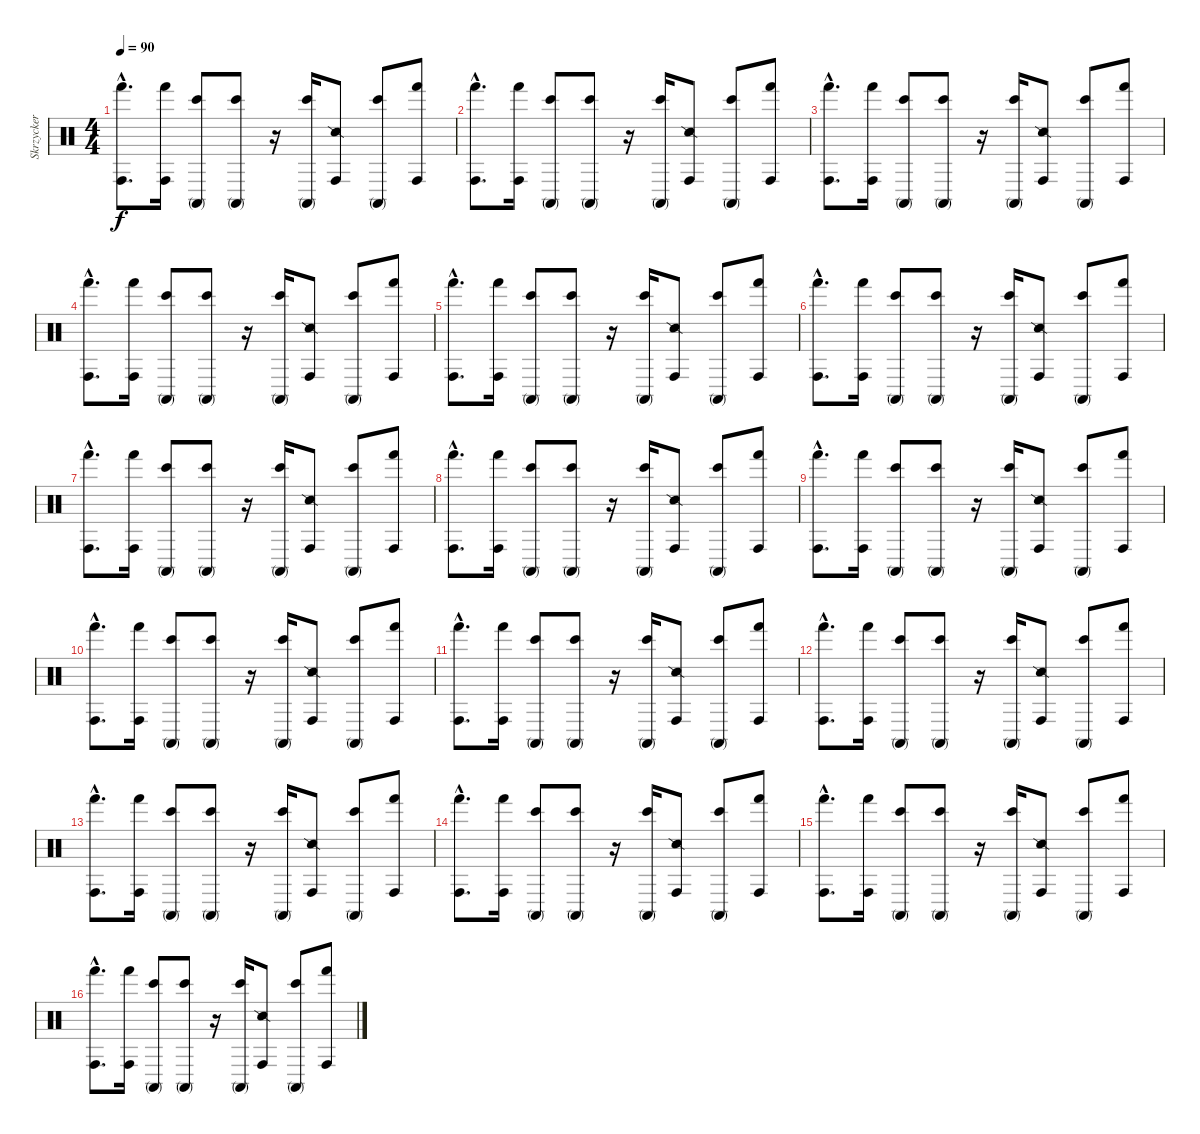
\track ("Skrzycker" "Skrzycker") {instrument percussion}
\staff {score}
\articulation defaults
\ts (4 4)
\tempo 90
\clef neutral
\ks c
("Conga high (hit)"{hac} "Hand (hit)"{hac}).8{d dy f} ("Conga high (hit)" "Hand (hit)").16 ("Conga high (mute)" "Bongo High (hit)").8 ("Conga high (mute)" "Bongo High (hit)").8 r.16 ("Conga high (mute)" "Bongo High (hit)").16 ("Conga high (hit)" "Snare (side stick) 2").8 ("Conga high (mute)" "Bongo High (hit)").8 ("Conga high (hit)" "Hand (hit)").8 |
("Conga high (hit)"{hac} "Hand (hit)"{hac}).8{d} ("Conga high (hit)" "Hand (hit)").16 ("Conga high (mute)" "Bongo High (hit)").8 ("Conga high (mute)" "Bongo High (hit)").8 r.16 ("Conga high (mute)" "Bongo High (hit)").16 ("Conga high (hit)" "Snare (side stick) 2").8 ("Conga high (mute)" "Bongo High (hit)").8 ("Conga high (hit)" "Hand (hit)").8 |
("Conga high (hit)"{hac} "Hand (hit)"{hac}).8{d} ("Conga high (hit)" "Hand (hit)").16 ("Conga high (mute)" "Bongo High (hit)").8 ("Conga high (mute)" "Bongo High (hit)").8 r.16 ("Conga high (mute)" "Bongo High (hit)").16 ("Conga high (hit)" "Snare (side stick) 2").8 ("Conga high (mute)" "Bongo High (hit)").8 ("Conga high (hit)" "Hand (hit)").8 |
("Conga high (hit)"{hac} "Hand (hit)"{hac}).8{d} ("Conga high (hit)" "Hand (hit)").16 ("Conga high (mute)" "Bongo High (hit)").8 ("Conga high (mute)" "Bongo High (hit)").8 r.16 ("Conga high (mute)" "Bongo High (hit)").16 ("Conga high (hit)" "Snare (side stick) 2").8 ("Conga high (mute)" "Bongo High (hit)").8 ("Conga high (hit)" "Hand (hit)").8 |
("Conga high (hit)"{hac} "Hand (hit)"{hac}).8{d} ("Conga high (hit)" "Hand (hit)").16 ("Conga high (mute)" "Bongo High (hit)").8 ("Conga high (mute)" "Bongo High (hit)").8 r.16 ("Conga high (mute)" "Bongo High (hit)").16 ("Conga high (hit)" "Snare (side stick) 2").8 ("Conga high (mute)" "Bongo High (hit)").8 ("Conga high (hit)" "Hand (hit)").8 |
("Conga high (hit)"{hac} "Hand (hit)"{hac}).8{d} ("Conga high (hit)" "Hand (hit)").16 ("Conga high (mute)" "Bongo High (hit)").8 ("Conga high (mute)" "Bongo High (hit)").8 r.16 ("Conga high (mute)" "Bongo High (hit)").16 ("Conga high (hit)" "Snare (side stick) 2").8 ("Conga high (mute)" "Bongo High (hit)").8 ("Conga high (hit)" "Hand (hit)").8 |
("Conga high (hit)"{hac} "Hand (hit)"{hac}).8{d} ("Conga high (hit)" "Hand (hit)").16 ("Conga high (mute)" "Bongo High (hit)").8 ("Conga high (mute)" "Bongo High (hit)").8 r.16 ("Conga high (mute)" "Bongo High (hit)").16 ("Conga high (hit)" "Snare (side stick) 2").8 ("Conga high (mute)" "Bongo High (hit)").8 ("Conga high (hit)" "Hand (hit)").8 |
("Conga high (hit)"{hac} "Hand (hit)"{hac}).8{d} ("Conga high (hit)" "Hand (hit)").16 ("Conga high (mute)" "Bongo High (hit)").8 ("Conga high (mute)" "Bongo High (hit)").8 r.16 ("Conga high (mute)" "Bongo High (hit)").16 ("Conga high (hit)" "Snare (side stick) 2").8 ("Conga high (mute)" "Bongo High (hit)").8 ("Conga high (hit)" "Hand (hit)").8 |
("Conga high (hit)"{hac} "Hand (hit)"{hac}).8{d} ("Conga high (hit)" "Hand (hit)").16 ("Conga high (mute)" "Bongo High (hit)").8 ("Conga high (mute)" "Bongo High (hit)").8 r.16 ("Conga high (mute)" "Bongo High (hit)").16 ("Conga high (hit)" "Snare (side stick) 2").8 ("Conga high (mute)" "Bongo High (hit)").8 ("Conga high (hit)" "Hand (hit)").8 |
("Conga high (hit)"{hac} "Hand (hit)"{hac}).8{d} ("Conga high (hit)" "Hand (hit)").16 ("Conga high (mute)" "Bongo High (hit)").8 ("Conga high (mute)" "Bongo High (hit)").8 r.16 ("Conga high (mute)" "Bongo High (hit)").16 ("Conga high (hit)" "Snare (side stick) 2").8 ("Conga high (mute)" "Bongo High (hit)").8 ("Conga high (hit)" "Hand (hit)").8 |
("Conga high (hit)"{hac} "Hand (hit)"{hac}).8{d} ("Conga high (hit)" "Hand (hit)").16 ("Conga high (mute)" "Bongo High (hit)").8 ("Conga high (mute)" "Bongo High (hit)").8 r.16 ("Conga high (mute)" "Bongo High (hit)").16 ("Conga high (hit)" "Snare (side stick) 2").8 ("Conga high (mute)" "Bongo High (hit)").8 ("Conga high (hit)" "Hand (hit)").8 |
("Conga high (hit)"{hac} "Hand (hit)"{hac}).8{d} ("Conga high (hit)" "Hand (hit)").16 ("Conga high (mute)" "Bongo High (hit)").8 ("Conga high (mute)" "Bongo High (hit)").8 r.16 ("Conga high (mute)" "Bongo High (hit)").16 ("Conga high (hit)" "Snare (side stick) 2").8 ("Conga high (mute)" "Bongo High (hit)").8 ("Conga high (hit)" "Hand (hit)").8 |
("Conga high (hit)"{hac} "Hand (hit)"{hac}).8{d} ("Conga high (hit)" "Hand (hit)").16 ("Conga high (mute)" "Bongo High (hit)").8 ("Conga high (mute)" "Bongo High (hit)").8 r.16 ("Conga high (mute)" "Bongo High (hit)").16 ("Conga high (hit)" "Snare (side stick) 2").8 ("Conga high (mute)" "Bongo High (hit)").8 ("Conga high (hit)" "Hand (hit)").8 |
("Conga high (hit)"{hac} "Hand (hit)"{hac}).8{d} ("Conga high (hit)" "Hand (hit)").16 ("Conga high (mute)" "Bongo High (hit)").8 ("Conga high (mute)" "Bongo High (hit)").8 r.16 ("Conga high (mute)" "Bongo High (hit)").16 ("Conga high (hit)" "Snare (side stick) 2").8 ("Conga high (mute)" "Bongo High (hit)").8 ("Conga high (hit)" "Hand (hit)").8 |
("Conga high (hit)"{hac} "Hand (hit)"{hac}).8{d} ("Conga high (hit)" "Hand (hit)").16 ("Conga high (mute)" "Bongo High (hit)").8 ("Conga high (mute)" "Bongo High (hit)").8 r.16 ("Conga high (mute)" "Bongo High (hit)").16 ("Conga high (hit)" "Snare (side stick) 2").8 ("Conga high (mute)" "Bongo High (hit)").8 ("Conga high (hit)" "Hand (hit)").8 |
("Conga high (hit)"{hac} "Hand (hit)"{hac}).8{d} ("Conga high (hit)" "Hand (hit)").16 ("Conga high (mute)" "Bongo High (hit)").8 ("Conga high (mute)" "Bongo High (hit)").8 r.16 ("Conga high (mute)" "Bongo High (hit)").16 ("Conga high (hit)" "Snare (side stick) 2").8 ("Conga high (mute)" "Bongo High (hit)").8 ("Conga high (hit)" "Hand (hit)").8
